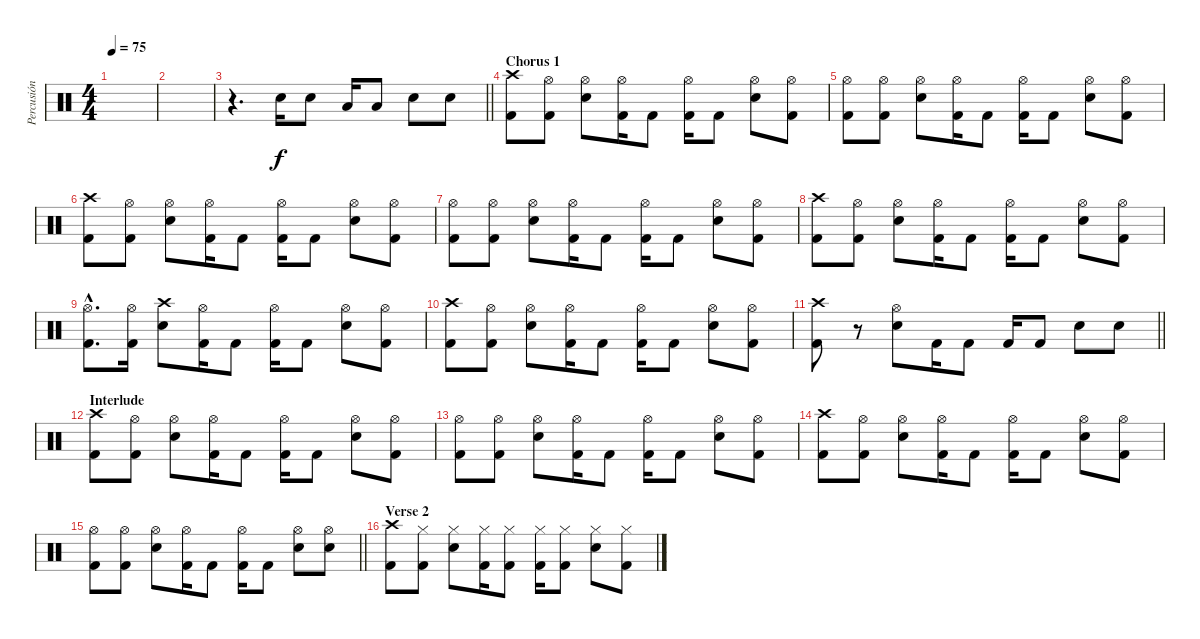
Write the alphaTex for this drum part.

\track ("Percusión" "Percusión") {instrument percussion}
\staff {score}
\articulation defaults
\ts (4 4)
\tempo 75
\clef neutral
\ks c
|
|
\barLineRight lightlight
r.4{d} "Snare (hit) 2".16 "Snare (hit) 2".8 "Low Tom (hit)".16 "Low Tom (hit)".8 "Snare (hit) 2".8 "Snare (hit) 2".8 |
\section ("" "Chorus 1")
("Crash high (hit)" "Kick (hit) 2").8 ("Hi-Hat (open)" "Kick (hit) 2").8 ("Hi-Hat (open)" "Snare (hit) 2").8 ("Hi-Hat (open)" "Kick (hit) 2").16 "Kick (hit) 2".8 ("Hi-Hat (open)" "Kick (hit) 2").16 "Kick (hit) 2".8 ("Hi-Hat (open)" "Snare (hit) 2").8 ("Hi-Hat (open)" "Kick (hit) 2").8 |
("Hi-Hat (open)" "Kick (hit) 2").8 ("Hi-Hat (open)" "Kick (hit) 2").8 ("Hi-Hat (open)" "Snare (hit) 2").8 ("Hi-Hat (open)" "Kick (hit) 2").16 "Kick (hit) 2".8 ("Hi-Hat (open)" "Kick (hit) 2").16 "Kick (hit) 2".8 ("Hi-Hat (open)" "Snare (hit) 2").8 ("Hi-Hat (open)" "Kick (hit) 2").8 |
("Crash high (hit)" "Kick (hit) 2").8 ("Hi-Hat (open)" "Kick (hit) 2").8 ("Hi-Hat (open)" "Snare (hit) 2").8 ("Hi-Hat (open)" "Kick (hit) 2").16 "Kick (hit) 2".8 ("Hi-Hat (open)" "Kick (hit) 2").16 "Kick (hit) 2".8 ("Hi-Hat (open)" "Snare (hit) 2").8 ("Hi-Hat (open)" "Kick (hit) 2").8 |
("Hi-Hat (open)" "Kick (hit) 2").8 ("Hi-Hat (open)" "Kick (hit) 2").8 ("Hi-Hat (open)" "Snare (hit) 2").8 ("Hi-Hat (open)" "Kick (hit) 2").16 "Kick (hit) 2".8 ("Hi-Hat (open)" "Kick (hit) 2").16 "Kick (hit) 2".8 ("Hi-Hat (open)" "Snare (hit) 2").8 ("Hi-Hat (open)" "Kick (hit) 2").8 |
("Crash high (hit)" "Kick (hit) 2").8 ("Hi-Hat (open)" "Kick (hit) 2").8 ("Hi-Hat (open)" "Snare (hit) 2").8 ("Hi-Hat (open)" "Kick (hit) 2").16 "Kick (hit) 2".8 ("Hi-Hat (open)" "Kick (hit) 2").16 "Kick (hit) 2".8 ("Hi-Hat (open)" "Snare (hit) 2").8 ("Hi-Hat (open)" "Kick (hit) 2").8 |
("Hi-Hat (open)"{hac} "Kick (hit) 2"{hac}).8{d} ("Hi-Hat (open)" "Kick (hit) 2").16 ("Crash high (hit)" "Snare (hit) 2").8 ("Hi-Hat (open)" "Kick (hit) 2").16 "Kick (hit) 2".8 ("Hi-Hat (open)" "Kick (hit) 2").16 "Kick (hit) 2".8 ("Hi-Hat (open)" "Snare (hit) 2").8 ("Hi-Hat (open)" "Kick (hit) 2").8 |
("Crash high (hit)" "Kick (hit) 2").8 ("Hi-Hat (open)" "Kick (hit) 2").8 ("Hi-Hat (open)" "Snare (hit) 2").8 ("Hi-Hat (open)" "Kick (hit) 2").16 "Kick (hit) 2".8 ("Hi-Hat (open)" "Kick (hit) 2").16 "Kick (hit) 2".8 ("Hi-Hat (open)" "Snare (hit) 2").8 ("Hi-Hat (open)" "Kick (hit) 2").8 |
\barLineRight lightlight
("Crash high (hit)" "Kick (hit) 2").8 r.8 ("Hi-Hat (open)" "Snare (hit) 2").8 "Kick (hit) 2".16 "Kick (hit) 2".8 "Kick (hit) 2".16 "Kick (hit) 2".8 "Snare (hit) 2".8 "Snare (hit) 2".8 |
\section ("" "Interlude")
("Crash high (hit)" "Kick (hit) 2").8 ("Hi-Hat (open)" "Kick (hit) 2").8 ("Hi-Hat (open)" "Snare (hit) 2").8 ("Hi-Hat (open)" "Kick (hit) 2").16 "Kick (hit) 2".8 ("Hi-Hat (open)" "Kick (hit) 2").16 "Kick (hit) 2".8 ("Hi-Hat (open)" "Snare (hit) 2").8 ("Hi-Hat (open)" "Kick (hit) 2").8 |
("Hi-Hat (open)" "Kick (hit) 2").8 ("Hi-Hat (open)" "Kick (hit) 2").8 ("Hi-Hat (open)" "Snare (hit) 2").8 ("Hi-Hat (open)" "Kick (hit) 2").16 "Kick (hit) 2".8 ("Hi-Hat (open)" "Kick (hit) 2").16 "Kick (hit) 2".8 ("Hi-Hat (open)" "Snare (hit) 2").8 ("Hi-Hat (open)" "Kick (hit) 2").8 |
("Crash high (hit)" "Kick (hit) 2").8 ("Hi-Hat (open)" "Kick (hit) 2").8 ("Hi-Hat (open)" "Snare (hit) 2").8 ("Hi-Hat (open)" "Kick (hit) 2").16 "Kick (hit) 2".8 ("Hi-Hat (open)" "Kick (hit) 2").16 "Kick (hit) 2".8 ("Hi-Hat (open)" "Snare (hit) 2").8 ("Hi-Hat (open)" "Kick (hit) 2").8 |
\barLineRight lightlight
("Hi-Hat (open)" "Kick (hit) 2").8 ("Hi-Hat (open)" "Kick (hit) 2").8 ("Hi-Hat (open)" "Snare (hit) 2").8 ("Hi-Hat (open)" "Kick (hit) 2").16 "Kick (hit) 2".8 ("Hi-Hat (open)" "Kick (hit) 2").16 "Kick (hit) 2".8 ("Hi-Hat (open)" "Snare (hit) 2").8 ("Hi-Hat (open)" "Snare (hit) 2").8 |
\section ("" "Verse 2")
("Crash high (hit)" "Kick (hit) 2").8 ("Hi-Hat (closed)" "Kick (hit) 2").8 ("Hi-Hat (closed)" "Snare (hit) 2").8 ("Hi-Hat (closed)" "Kick (hit) 2").16 ("Hi-Hat (closed)" "Kick (hit) 2").8 ("Hi-Hat (closed)" "Kick (hit) 2").16 ("Hi-Hat (closed)" "Kick (hit) 2").8 ("Hi-Hat (closed)" "Snare (hit) 2").8 ("Hi-Hat (closed)" "Kick (hit) 2").8
